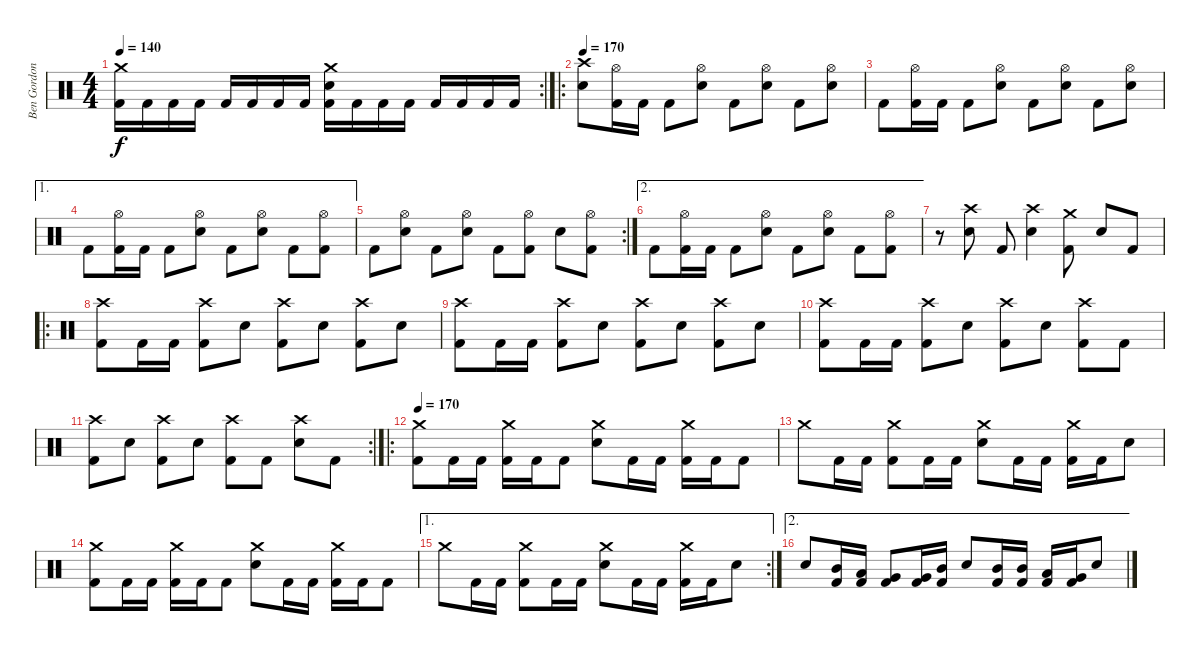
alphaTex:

\track ("Ben Gordon" "Ben Gordon") {instrument percussion}
\staff {score}
\articulation defaults
\rc 2
\ts (4 4)
\tempo 140
\clef neutral
\ks c
("Crash medium (hit)" "Kick (hit) 2").16{dy f} "Kick (hit) 2".16 "Kick (hit) 2".16 "Kick (hit) 2".16 "Kick (hit) 2".16 "Kick (hit) 2".16 "Kick (hit) 2".16 "Kick (hit) 2".16 ("Crash medium (hit)" "Snare (hit) 2" "Kick (hit) 2").16 "Kick (hit) 2".16 "Kick (hit) 2".16 "Kick (hit) 2".16 "Kick (hit) 2".16 "Kick (hit) 2".16 "Kick (hit) 2".16 "Kick (hit) 2".16 |
\ro
\tempo 170
("Crash high (hit)" "Snare (hit) 2").8 ("Hi-Hat (open)" "Kick (hit) 2").16 "Kick (hit) 2".16 "Kick (hit) 2".8 ("Hi-Hat (open)" "Snare (hit) 2").8 "Kick (hit) 2".8 ("Hi-Hat (open)" "Snare (hit) 2").8 "Kick (hit) 2".8 ("Hi-Hat (open)" "Snare (hit) 2").8 |
"Kick (hit) 2".8 ("Hi-Hat (open)" "Kick (hit) 2").16 "Kick (hit) 2".16 "Kick (hit) 2".8 ("Hi-Hat (open)" "Snare (hit) 2").8 "Kick (hit) 2".8 ("Hi-Hat (open)" "Snare (hit) 2").8 "Kick (hit) 2".8 ("Hi-Hat (open)" "Snare (hit) 2").8 |
\ae 1 "Kick (hit) 2".8
("Hi-Hat (open)" "Kick (hit) 2").16 "Kick (hit) 2".16 "Kick (hit) 2".8 ("Hi-Hat (open)" "Snare (hit) 2").8 "Kick (hit) 2".8 ("Hi-Hat (open)" "Snare (hit) 2").8 "Kick (hit) 2".8 ("Hi-Hat (open)" "Kick (hit) 2").8 |
\rc 2 "Kick (hit) 2".8
("Hi-Hat (open)" "Snare (hit) 2").8 "Kick (hit) 2".8 ("Hi-Hat (open)" "Snare (hit) 2").8 "Kick (hit) 2".8 ("Hi-Hat (open)" "Kick (hit) 2").8 "Snare (hit) 2".8 ("Hi-Hat (open)" "Kick (hit) 2").8 |
\ae 2 "Kick (hit) 2".8
("Hi-Hat (open)" "Kick (hit) 2").16 "Kick (hit) 2".16 "Kick (hit) 2".8 ("Hi-Hat (open)" "Snare (hit) 2").8 "Kick (hit) 2".8 ("Hi-Hat (open)" "Snare (hit) 2").8 "Kick (hit) 2".8 ("Hi-Hat (open)" "Kick (hit) 2").8 |
r.8 ("Crash high (hit)" "Snare (hit) 2").8 "Kick (hit) 2".8 ("Crash high (hit)" "Snare (hit) 2").4 ("Crash medium (hit)" "Kick (hit) 2").8 "Snare (hit) 2".8 "Kick (hit) 2".8 |
\ro
("Crash high (hit)" "Kick (hit) 2").8 "Kick (hit) 2".16 "Kick (hit) 2".16 ("Crash high (hit)" "Kick (hit) 2").8 "Snare (hit) 2".8 ("Crash high (hit)" "Kick (hit) 2").8 "Snare (hit) 2".8 ("Crash high (hit)" "Kick (hit) 2").8 "Snare (hit) 2".8 |
("Crash high (hit)" "Kick (hit) 2").8 "Kick (hit) 2".16 "Kick (hit) 2".16 ("Crash high (hit)" "Kick (hit) 2").8 "Snare (hit) 2".8 ("Crash high (hit)" "Kick (hit) 2").8 "Snare (hit) 2".8 ("Crash high (hit)" "Kick (hit) 2").8 "Snare (hit) 2".8 |
("Crash high (hit)" "Kick (hit) 2").8 "Kick (hit) 2".16 "Kick (hit) 2".16 ("Crash high (hit)" "Kick (hit) 2").8 "Snare (hit) 2".8 ("Crash high (hit)" "Kick (hit) 2").8 "Snare (hit) 2".8 ("Crash high (hit)" "Kick (hit) 2").8 "Kick (hit) 2".8 |
\rc 2
("Crash high (hit)" "Kick (hit) 2").8 "Snare (hit) 2".8 ("Crash high (hit)" "Kick (hit) 2").8 "Snare (hit) 2".8 ("Crash high (hit)" "Kick (hit) 2").8 "Kick (hit) 2".8 ("Crash high (hit)" "Snare (hit) 2").8 "Kick (hit) 2".8 |
\ro
\tempo 170
("Crash medium (hit)" "Kick (hit) 2").8 "Kick (hit) 2".16 "Kick (hit) 2".16 ("Crash medium (hit)" "Kick (hit) 2").16 "Kick (hit) 2".16 "Kick (hit) 2".8 ("Crash medium (hit)" "Snare (hit) 2").8 "Kick (hit) 2".16 "Kick (hit) 2".16 ("Crash medium (hit)" "Kick (hit) 2").16 "Kick (hit) 2".16 "Kick (hit) 2".8 |
"Crash medium (hit)".8 "Kick (hit) 2".16 "Kick (hit) 2".16 ("Crash medium (hit)" "Kick (hit) 2").8 "Kick (hit) 2".16 "Kick (hit) 2".16 ("Crash medium (hit)" "Snare (hit) 2").8 "Kick (hit) 2".16 "Kick (hit) 2".16 ("Crash medium (hit)" "Kick (hit) 2").16 "Kick (hit) 2".16 "Snare (hit) 2".8 |
("Crash medium (hit)" "Kick (hit) 2").8 "Kick (hit) 2".16 "Kick (hit) 2".16 ("Crash medium (hit)" "Kick (hit) 2").16 "Kick (hit) 2".16 "Kick (hit) 2".8 ("Crash medium (hit)" "Snare (hit) 2").8 "Kick (hit) 2".16 "Kick (hit) 2".16 ("Crash medium (hit)" "Kick (hit) 2").16 "Kick (hit) 2".16 "Kick (hit) 2".8 |
\ae 1
\rc 2 "Crash medium (hit)".8 "Kick (hit) 2".16 "Kick (hit) 2".16
("Crash medium (hit)" "Kick (hit) 2").8 "Kick (hit) 2".16 "Kick (hit) 2".16 ("Crash medium (hit)" "Snare (hit) 2").8 "Kick (hit) 2".16 "Kick (hit) 2".16 ("Crash medium (hit)" "Kick (hit) 2").16 "Kick (hit) 2".16 "Snare (hit) 2".8 |
\ae 2 "Snare (hit) 2".8
("Mid Tom (hit)" "Kick (hit) 2").16 ("Low Tom (hit)" "Kick (hit) 2").16 ("Very Low Tom (hit)" "Kick (hit) 2").8 ("Very Low Tom (hit)" "Kick (hit) 2").16 ("Mid Tom (hit)" "Kick (hit) 2").16 "Snare (hit) 2".8 ("Mid Tom (hit)" "Kick (hit) 2").16 ("Mid Tom (hit)" "Kick (hit) 2").16 ("Low Tom (hit)" "Kick (hit) 2").16 ("Very Low Tom (hit)" "Kick (hit) 2").16 "Snare (hit) 2".8
